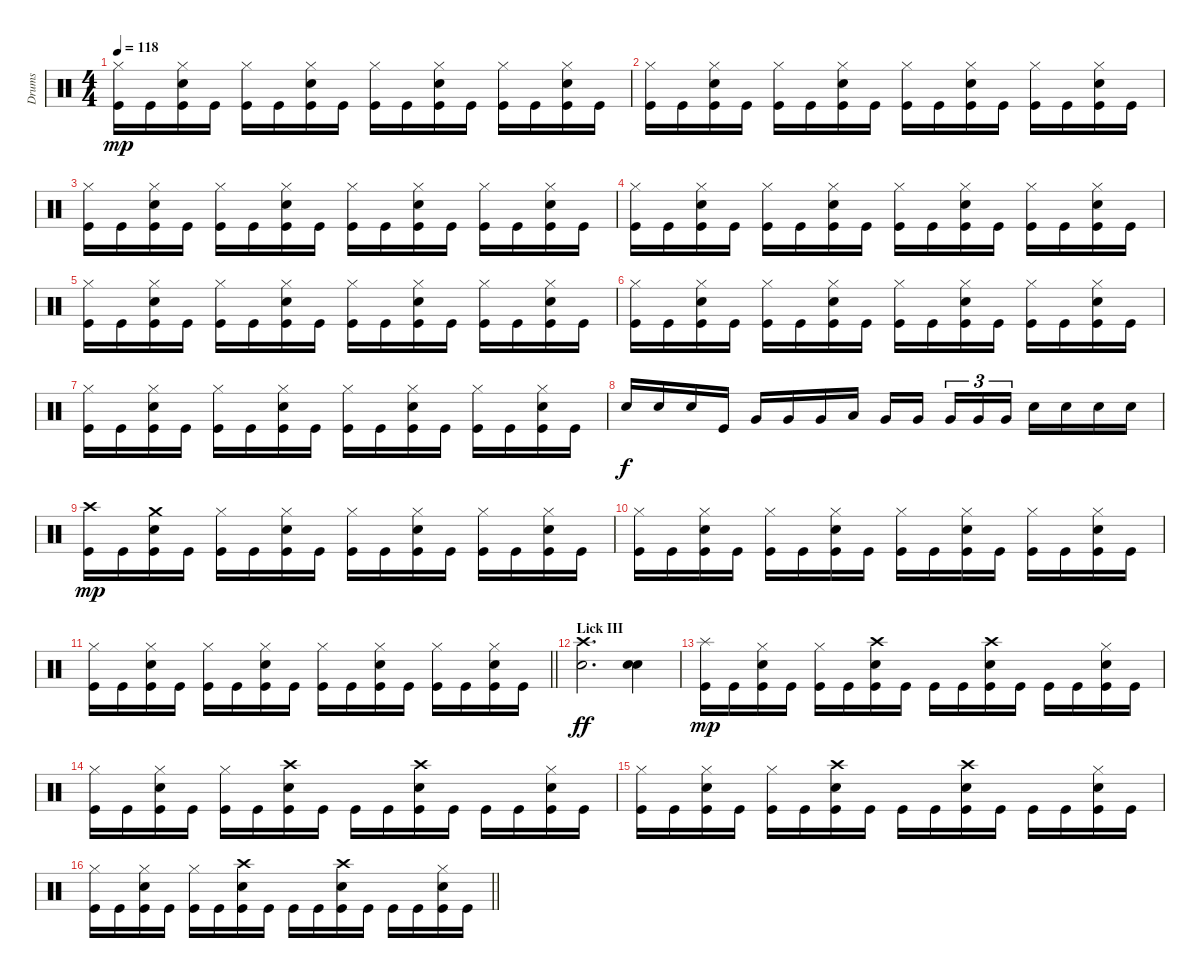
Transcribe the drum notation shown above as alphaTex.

\track ("Drums" "Drums") {instrument percussion}
\staff {score}
\articulation defaults
\ts (4 4)
\tempo 118
\clef neutral
\ks c
("Hi-Hat (closed)" "Kick (hit)").16{dy mp} "Kick (hit)".16 ("Hi-Hat (closed)" "Electric Snare (hit)" "Kick (hit)").16 "Kick (hit)".16 ("Hi-Hat (closed)" "Kick (hit)").16 "Kick (hit)".16 ("Hi-Hat (closed)" "Electric Snare (hit)" "Kick (hit)").16 "Kick (hit)".16 ("Hi-Hat (closed)" "Kick (hit)").16 "Kick (hit)".16 ("Hi-Hat (closed)" "Electric Snare (hit)" "Kick (hit)").16 "Kick (hit)".16 ("Hi-Hat (closed)" "Kick (hit)").16 "Kick (hit)".16 ("Hi-Hat (closed)" "Electric Snare (hit)" "Kick (hit)").16 "Kick (hit)".16 |
("Hi-Hat (closed)" "Kick (hit)").16 "Kick (hit)".16 ("Hi-Hat (closed)" "Electric Snare (hit)" "Kick (hit)").16 "Kick (hit)".16 ("Hi-Hat (closed)" "Kick (hit)").16 "Kick (hit)".16 ("Hi-Hat (closed)" "Electric Snare (hit)" "Kick (hit)").16 "Kick (hit)".16 ("Hi-Hat (closed)" "Kick (hit)").16 "Kick (hit)".16 ("Hi-Hat (closed)" "Electric Snare (hit)" "Kick (hit)").16 "Kick (hit)".16 ("Hi-Hat (closed)" "Kick (hit)").16 "Kick (hit)".16 ("Hi-Hat (closed)" "Electric Snare (hit)" "Kick (hit)").16 "Kick (hit)".16 |
("Hi-Hat (closed)" "Kick (hit)").16 "Kick (hit)".16 ("Hi-Hat (closed)" "Electric Snare (hit)" "Kick (hit)").16 "Kick (hit)".16 ("Hi-Hat (closed)" "Kick (hit)").16 "Kick (hit)".16 ("Hi-Hat (closed)" "Electric Snare (hit)" "Kick (hit)").16 "Kick (hit)".16 ("Hi-Hat (closed)" "Kick (hit)").16 "Kick (hit)".16 ("Hi-Hat (closed)" "Electric Snare (hit)" "Kick (hit)").16 "Kick (hit)".16 ("Hi-Hat (closed)" "Kick (hit)").16 "Kick (hit)".16 ("Hi-Hat (closed)" "Electric Snare (hit)" "Kick (hit)").16 "Kick (hit)".16 |
("Hi-Hat (closed)" "Kick (hit)").16 "Kick (hit)".16 ("Hi-Hat (closed)" "Electric Snare (hit)" "Kick (hit)").16 "Kick (hit)".16 ("Hi-Hat (closed)" "Kick (hit)").16 "Kick (hit)".16 ("Hi-Hat (closed)" "Electric Snare (hit)" "Kick (hit)").16 "Kick (hit)".16 ("Hi-Hat (closed)" "Kick (hit)").16 "Kick (hit)".16 ("Hi-Hat (closed)" "Electric Snare (hit)" "Kick (hit)").16 "Kick (hit)".16 ("Hi-Hat (closed)" "Kick (hit)").16 "Kick (hit)".16 ("Hi-Hat (closed)" "Electric Snare (hit)" "Kick (hit)").16 "Kick (hit)".16 |
("Hi-Hat (closed)" "Kick (hit)").16 "Kick (hit)".16 ("Hi-Hat (closed)" "Electric Snare (hit)" "Kick (hit)").16 "Kick (hit)".16 ("Hi-Hat (closed)" "Kick (hit)").16 "Kick (hit)".16 ("Hi-Hat (closed)" "Electric Snare (hit)" "Kick (hit)").16 "Kick (hit)".16 ("Hi-Hat (closed)" "Kick (hit)").16 "Kick (hit)".16 ("Hi-Hat (closed)" "Electric Snare (hit)" "Kick (hit)").16 "Kick (hit)".16 ("Hi-Hat (closed)" "Kick (hit)").16 "Kick (hit)".16 ("Hi-Hat (closed)" "Electric Snare (hit)" "Kick (hit)").16 "Kick (hit)".16 |
("Hi-Hat (closed)" "Kick (hit)").16 "Kick (hit)".16 ("Hi-Hat (closed)" "Electric Snare (hit)" "Kick (hit)").16 "Kick (hit)".16 ("Hi-Hat (closed)" "Kick (hit)").16 "Kick (hit)".16 ("Hi-Hat (closed)" "Electric Snare (hit)" "Kick (hit)").16 "Kick (hit)".16 ("Hi-Hat (closed)" "Kick (hit)").16 "Kick (hit)".16 ("Hi-Hat (closed)" "Electric Snare (hit)" "Kick (hit)").16 "Kick (hit)".16 ("Hi-Hat (closed)" "Kick (hit)").16 "Kick (hit)".16 ("Hi-Hat (closed)" "Electric Snare (hit)" "Kick (hit)").16 "Kick (hit)".16 |
("Hi-Hat (closed)" "Kick (hit)").16 "Kick (hit)".16 ("Hi-Hat (closed)" "Electric Snare (hit)" "Kick (hit)").16 "Kick (hit)".16 ("Hi-Hat (closed)" "Kick (hit)").16 "Kick (hit)".16 ("Hi-Hat (closed)" "Electric Snare (hit)" "Kick (hit)").16 "Kick (hit)".16 ("Hi-Hat (closed)" "Kick (hit)").16 "Kick (hit)".16 ("Hi-Hat (closed)" "Electric Snare (hit)" "Kick (hit)").16 "Kick (hit)".16 ("Hi-Hat (closed)" "Kick (hit)").16 "Kick (hit)".16 ("Hi-Hat (closed)" "Electric Snare (hit)" "Kick (hit)").16 "Kick (hit)".16 |
"Snare (hit) 2".16{dy f} "Snare (hit) 2".16 "Snare (hit) 2".16 "Kick (hit)".16 "Very Low Tom (hit)".16 "Very Low Tom (hit)".16 "Very Low Tom (hit)".16 "Low Floor Tom (hit)".16 "Very Low Tom (hit)".16 "Very Low Tom (hit)".16 "Very Low Tom (hit)".16{tu (3 2)} "Very Low Tom (hit)".16{tu (3 2)} "Very Low Tom (hit)".16{tu (3 2)} "Snare (hit) 2".16 "Snare (hit) 2".16 "Snare (hit) 2".16 "Snare (hit) 2".16 |
("Crash high (hit)" "Kick (hit)").16{dy mp} "Kick (hit)".16 ("Crash medium (hit)" "Electric Snare (hit)" "Kick (hit)").16 "Kick (hit)".16 ("Hi-Hat (closed)" "Kick (hit)").16 "Kick (hit)".16 ("Hi-Hat (closed)" "Electric Snare (hit)" "Kick (hit)").16 "Kick (hit)".16 ("Hi-Hat (closed)" "Kick (hit)").16 "Kick (hit)".16 ("Hi-Hat (closed)" "Electric Snare (hit)" "Kick (hit)").16 "Kick (hit)".16 ("Hi-Hat (closed)" "Kick (hit)").16 "Kick (hit)".16 ("Hi-Hat (closed)" "Electric Snare (hit)" "Kick (hit)").16 "Kick (hit)".16 |
("Hi-Hat (closed)" "Kick (hit)").16 "Kick (hit)".16 ("Hi-Hat (closed)" "Electric Snare (hit)" "Kick (hit)").16 "Kick (hit)".16 ("Hi-Hat (closed)" "Kick (hit)").16 "Kick (hit)".16 ("Hi-Hat (closed)" "Electric Snare (hit)" "Kick (hit)").16 "Kick (hit)".16 ("Hi-Hat (closed)" "Kick (hit)").16 "Kick (hit)".16 ("Hi-Hat (closed)" "Electric Snare (hit)" "Kick (hit)").16 "Kick (hit)".16 ("Hi-Hat (closed)" "Kick (hit)").16 "Kick (hit)".16 ("Hi-Hat (closed)" "Electric Snare (hit)" "Kick (hit)").16 "Kick (hit)".16 |
\barLineRight lightlight
("Hi-Hat (closed)" "Kick (hit)").16 "Kick (hit)".16 ("Hi-Hat (closed)" "Electric Snare (hit)" "Kick (hit)").16 "Kick (hit)".16 ("Hi-Hat (closed)" "Kick (hit)").16 "Kick (hit)".16 ("Hi-Hat (closed)" "Electric Snare (hit)" "Kick (hit)").16 "Kick (hit)".16 ("Hi-Hat (closed)" "Kick (hit)").16 "Kick (hit)".16 ("Hi-Hat (closed)" "Electric Snare (hit)" "Kick (hit)").16 "Kick (hit)".16 ("Hi-Hat (closed)" "Kick (hit)").16 "Kick (hit)".16 ("Hi-Hat (closed)" "Electric Snare (hit)" "Kick (hit)").16 "Kick (hit)".16 |
\section ("" "Lick III")
("Crash high (hit)" "Electric Snare (hit)").2{d dy ff} ("Electric Snare (hit)" "Snare (hit) 2").4 |
("Splash (hit)" "Kick (hit)").16{dy mp} "Kick (hit)".16 ("Hi-Hat (closed)" "Electric Snare (hit)" "Kick (hit)").16 "Kick (hit)".16 ("Hi-Hat (closed)" "Kick (hit)").16 "Kick (hit)".16 ("Crash high (hit)" "Snare (hit) 2" "Kick (hit)").16 "Kick (hit)".16 "Kick (hit)".16 "Kick (hit)".16 ("Crash high (hit)" "Snare (hit) 2" "Kick (hit)").16 "Kick (hit)".16 "Kick (hit)".16 "Kick (hit)".16 ("Hi-Hat (closed)" "Electric Snare (hit)" "Kick (hit)").16 "Kick (hit)".16 |
("Hi-Hat (closed)" "Kick (hit)").16 "Kick (hit)".16 ("Hi-Hat (closed)" "Electric Snare (hit)" "Kick (hit)").16 "Kick (hit)".16 ("Hi-Hat (closed)" "Kick (hit)").16 "Kick (hit)".16 ("Crash high (hit)" "Snare (hit) 2" "Kick (hit)").16 "Kick (hit)".16 "Kick (hit)".16 "Kick (hit)".16 ("Crash high (hit)" "Snare (hit) 2" "Kick (hit)").16 "Kick (hit)".16 "Kick (hit)".16 "Kick (hit)".16 ("Hi-Hat (closed)" "Electric Snare (hit)" "Kick (hit)").16 "Kick (hit)".16 |
("Hi-Hat (closed)" "Kick (hit)").16 "Kick (hit)".16 ("Hi-Hat (closed)" "Electric Snare (hit)" "Kick (hit)").16 "Kick (hit)".16 ("Hi-Hat (closed)" "Kick (hit)").16 "Kick (hit)".16 ("Crash high (hit)" "Snare (hit) 2" "Kick (hit)").16 "Kick (hit)".16 "Kick (hit)".16 "Kick (hit)".16 ("Crash high (hit)" "Snare (hit) 2" "Kick (hit)").16 "Kick (hit)".16 "Kick (hit)".16 "Kick (hit)".16 ("Hi-Hat (closed)" "Electric Snare (hit)" "Kick (hit)").16 "Kick (hit)".16 |
\barLineRight lightlight
("Hi-Hat (closed)" "Kick (hit)").16 "Kick (hit)".16 ("Hi-Hat (closed)" "Electric Snare (hit)" "Kick (hit)").16 "Kick (hit)".16 ("Hi-Hat (closed)" "Kick (hit)").16 "Kick (hit)".16 ("Crash high (hit)" "Snare (hit) 2" "Kick (hit)").16 "Kick (hit)".16 "Kick (hit)".16 "Kick (hit)".16 ("Crash high (hit)" "Snare (hit) 2" "Kick (hit)").16 "Kick (hit)".16 "Kick (hit)".16 "Kick (hit)".16 ("Hi-Hat (closed)" "Electric Snare (hit)" "Kick (hit)").16 "Kick (hit)".16
